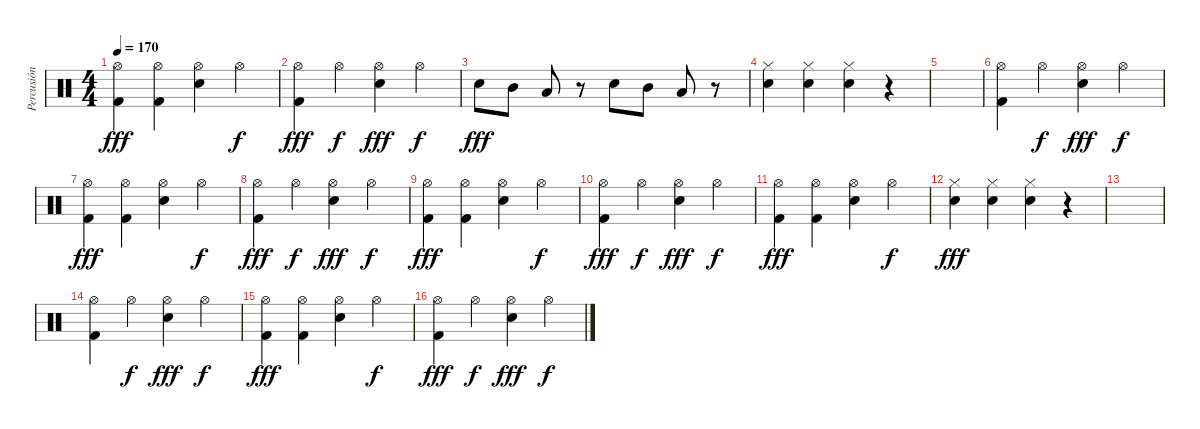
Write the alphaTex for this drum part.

\track ("Percusión" "Percusión") {instrument percussion}
\staff {score}
\articulation defaults
\ts (4 4)
\tempo 170
\clef neutral
\ks c
("Hi-Hat (open)" "Kick (hit) 2").4{dy fff} ("Hi-Hat (open)" "Kick (hit) 2").4 ("Hi-Hat (open)" "Electric Snare (hit)").4 "Hi-Hat (open)".4{dy f} |
("Hi-Hat (open)" "Kick (hit) 2").4{dy fff} "Hi-Hat (open)".4{dy f} ("Hi-Hat (open)" "Electric Snare (hit)").4{dy fff} "Hi-Hat (open)".4{dy f} |
"Electric Snare (hit)".8{dy fff} "Mid Tom (hit)".8 "Low Tom (hit)".8 r.8 "Electric Snare (hit)".8 "Mid Tom (hit)".8 "Low Tom (hit)".8 r.8 |
("Hi-Hat (closed)" "Electric Snare (hit)").4 ("Hi-Hat (closed)" "Electric Snare (hit)").4 ("Hi-Hat (closed)" "Electric Snare (hit)").4 r.4 |
|
("Hi-Hat (open)" "Kick (hit) 2").4 "Hi-Hat (open)".4{dy f} ("Hi-Hat (open)" "Electric Snare (hit)").4{dy fff} "Hi-Hat (open)".4{dy f} |
("Hi-Hat (open)" "Kick (hit) 2").4{dy fff} ("Hi-Hat (open)" "Kick (hit) 2").4 ("Hi-Hat (open)" "Electric Snare (hit)").4 "Hi-Hat (open)".4{dy f} |
("Hi-Hat (open)" "Kick (hit) 2").4{dy fff} "Hi-Hat (open)".4{dy f} ("Hi-Hat (open)" "Electric Snare (hit)").4{dy fff} "Hi-Hat (open)".4{dy f} |
("Hi-Hat (open)" "Kick (hit) 2").4{dy fff} ("Hi-Hat (open)" "Kick (hit) 2").4 ("Hi-Hat (open)" "Electric Snare (hit)").4 "Hi-Hat (open)".4{dy f} |
("Hi-Hat (open)" "Kick (hit) 2").4{dy fff} "Hi-Hat (open)".4{dy f} ("Hi-Hat (open)" "Electric Snare (hit)").4{dy fff} "Hi-Hat (open)".4{dy f} |
("Hi-Hat (open)" "Kick (hit) 2").4{dy fff} ("Hi-Hat (open)" "Kick (hit) 2").4 ("Hi-Hat (open)" "Electric Snare (hit)").4 "Hi-Hat (open)".4{dy f} |
("Hi-Hat (closed)" "Electric Snare (hit)").4{dy fff} ("Hi-Hat (closed)" "Electric Snare (hit)").4 ("Hi-Hat (closed)" "Electric Snare (hit)").4 r.4 |
|
("Hi-Hat (open)" "Kick (hit) 2").4 "Hi-Hat (open)".4{dy f} ("Hi-Hat (open)" "Electric Snare (hit)").4{dy fff} "Hi-Hat (open)".4{dy f} |
("Hi-Hat (open)" "Kick (hit) 2").4{dy fff} ("Hi-Hat (open)" "Kick (hit) 2").4 ("Hi-Hat (open)" "Electric Snare (hit)").4 "Hi-Hat (open)".4{dy f} |
("Hi-Hat (open)" "Kick (hit) 2").4{dy fff} "Hi-Hat (open)".4{dy f} ("Hi-Hat (open)" "Electric Snare (hit)").4{dy fff} "Hi-Hat (open)".4{dy f}
